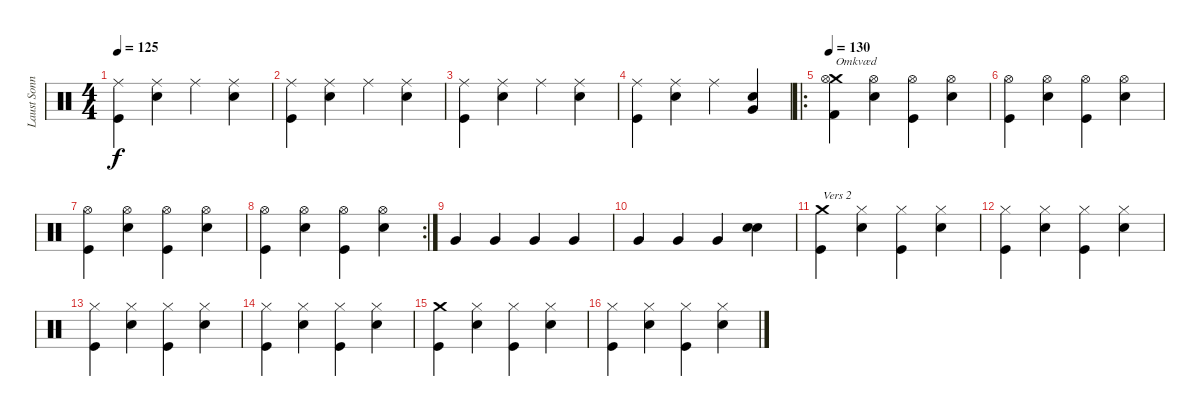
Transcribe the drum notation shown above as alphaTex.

\track ("Laust Sonne (Trommer)" "Laust Sonn") {instrument percussion}
\staff {score}
\articulation defaults
\ts (4 4)
\tempo 125
\clef neutral
\ks c
("Ride (middle)" "Kick (hit)").4{dy f} ("Ride (middle)" "Snare (hit) 2").4 "Ride (middle)".4 ("Ride (middle)" "Snare (hit) 2").4 |
("Ride (middle)" "Kick (hit)").4 ("Ride (middle)" "Snare (hit) 2").4 "Ride (middle)".4 ("Ride (middle)" "Snare (hit) 2").4 |
("Ride (middle)" "Kick (hit)").4 ("Ride (middle)" "Snare (hit) 2").4 "Ride (middle)".4 ("Ride (middle)" "Snare (hit) 2").4 |
("Ride (middle)" "Kick (hit)").4 ("Ride (middle)" "Snare (hit) 2").4 "Ride (middle)".4 ("Very Low Tom (hit)" "Snare (hit) 2").4 |
\ro
\tempo 130
("Crash medium (hit)" "Hi-Hat (open)" "Kick (hit) 2").4{txt "Omkvæd"} ("Hi-Hat (open)" "Snare (hit) 2").4 ("Hi-Hat (open)" "Kick (hit)").4 ("Hi-Hat (open)" "Snare (hit) 2").4 |
("Hi-Hat (open)" "Kick (hit)").4 ("Hi-Hat (open)" "Snare (hit) 2").4 ("Hi-Hat (open)" "Kick (hit)").4 ("Hi-Hat (open)" "Snare (hit) 2").4 |
("Hi-Hat (open)" "Kick (hit)").4 ("Hi-Hat (open)" "Snare (hit) 2").4 ("Hi-Hat (open)" "Kick (hit)").4 ("Hi-Hat (open)" "Snare (hit) 2").4 |
\rc 2
("Hi-Hat (open)" "Kick (hit)").4 ("Hi-Hat (open)" "Snare (hit) 2").4 ("Hi-Hat (open)" "Kick (hit)").4 ("Hi-Hat (open)" "Snare (hit) 2").4 |
"Very Low Tom (hit)".4 "Very Low Tom (hit)".4 "Very Low Tom (hit)".4 "Very Low Tom (hit)".4 |
"Very Low Tom (hit)".4 "Very Low Tom (hit)".4 "Very Low Tom (hit)".4 ("Snare (hit) 2" "Snare (hit) 2").4 |
("Crash medium (hit)" "Kick (hit)").4{txt "Vers 2"} ("Hi-Hat (closed)" "Snare (hit) 2").4 ("Hi-Hat (closed)" "Kick (hit)").4 ("Hi-Hat (closed)" "Snare (hit) 2").4 |
("Hi-Hat (closed)" "Kick (hit)").4 ("Hi-Hat (closed)" "Snare (hit) 2").4 ("Hi-Hat (closed)" "Kick (hit)").4 ("Hi-Hat (closed)" "Snare (hit) 2").4 |
("Hi-Hat (closed)" "Kick (hit)").4 ("Hi-Hat (closed)" "Snare (hit) 2").4 ("Hi-Hat (closed)" "Kick (hit)").4 ("Hi-Hat (closed)" "Snare (hit) 2").4 |
("Hi-Hat (closed)" "Kick (hit)").4 ("Hi-Hat (closed)" "Snare (hit) 2").4 ("Hi-Hat (closed)" "Kick (hit)").4 ("Hi-Hat (closed)" "Snare (hit) 2").4 |
("Crash medium (hit)" "Kick (hit)").4 ("Hi-Hat (closed)" "Snare (hit) 2").4 ("Hi-Hat (closed)" "Kick (hit)").4 ("Hi-Hat (closed)" "Snare (hit) 2").4 |
("Hi-Hat (closed)" "Kick (hit)").4 ("Hi-Hat (closed)" "Snare (hit) 2").4 ("Hi-Hat (closed)" "Kick (hit)").4 ("Hi-Hat (closed)" "Snare (hit) 2").4
